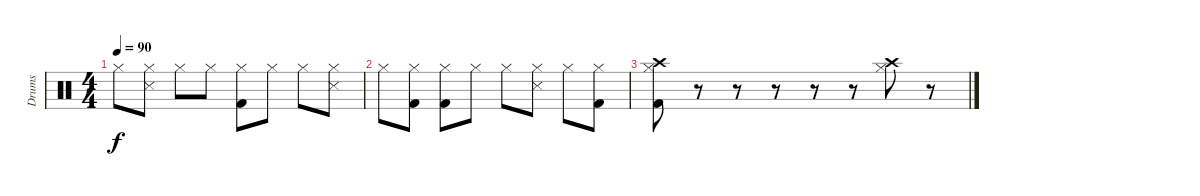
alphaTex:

\track ("Drums" "Drums") {instrument percussion}
\staff {score}
\articulation defaults
\ts (4 4)
\tempo 90
\clef neutral
\ks c "Hi-Hat (closed)".8{dy f}
("Hi-Hat (closed)" "Metronome (hit)").8 "Hi-Hat (closed)".8 "Hi-Hat (closed)".8 ("Hi-Hat (closed)" "Kick (hit) 2").8 "Hi-Hat (closed)".8 "Hi-Hat (closed)".8 ("Hi-Hat (closed)" "Metronome (hit)").8 |
"Hi-Hat (closed)".8 ("Hi-Hat (closed)" "Kick (hit) 2").8 ("Hi-Hat (closed)" "Kick (hit) 2").8 "Hi-Hat (closed)".8 "Hi-Hat (closed)".8 ("Hi-Hat (closed)" "Metronome (hit)").8 "Hi-Hat (closed)".8 ("Hi-Hat (closed)" "Kick (hit) 2").8 |
("Hi-Hat (closed)" "Kick (hit) 2" "Crash high (hit)").8 r.8 r.8 r.8 r.8 r.8 ("Hi-Hat (closed)" "Crash high (hit)").8 r.8
